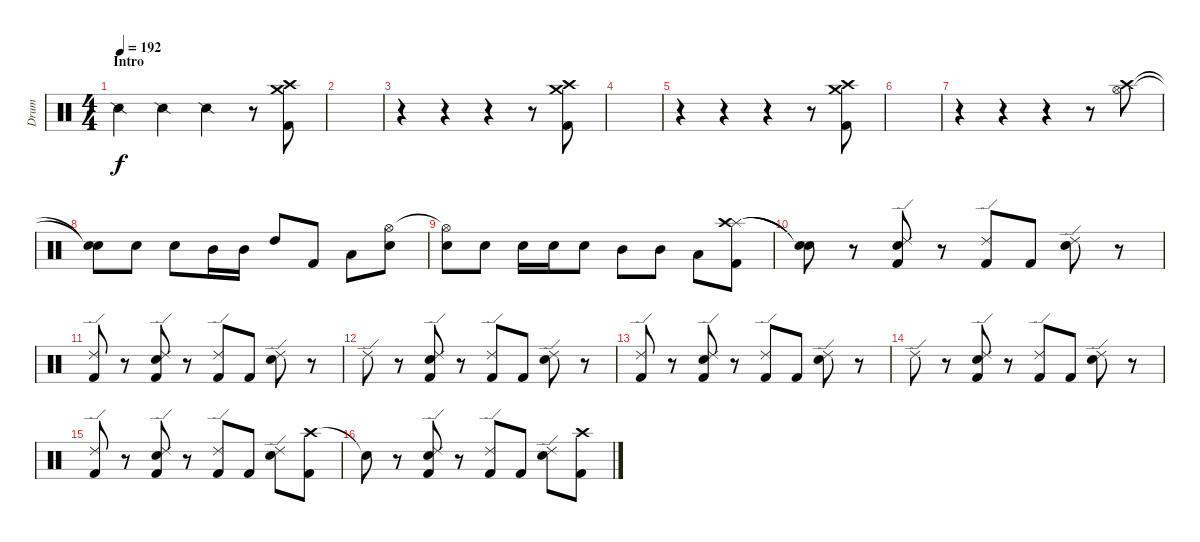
\track ("Drum" "Drum") {instrument percussion}
\staff {score}
\articulation defaults
\ts (4 4)
\section ("" "Intro")
\tempo 192
\clef neutral
\ks c "Snare (side stick) 2".4{dy f} "Snare (side stick) 2".4 "Snare (side stick) 2".4
r.8 ("Crash high (hit)" "Crash medium (hit)" "Kick (hit) 2").8 |
|
r.4 r.4 r.4 r.8 ("Crash high (hit)" "Crash medium (hit)" "Kick (hit) 2").8 |
|
r.4 r.4 r.4 r.8 ("Crash high (hit)" "Crash medium (hit)" "Kick (hit) 2").8 |
|
r.4 r.4 r.4 r.8 ("Crash high (hit)" "Hi-Hat (open)").8 |
("Snare (hit)"{t} "Snare (hit)"{t}).8 "Electric Snare (hit)".8 "Electric Snare (hit)".8 "Mid Tom (hit)".16 "Mid Tom (hit)".16 "High Tom (hit)".8 "Kick (hit) 2".8 "Low Tom (hit)".8 ("Hi-Hat (open)" "Electric Snare (hit)").8 |
("Hi-Hat (open)"{t} "Electric Snare (hit)").8 "Electric Snare (hit)".8 "Electric Snare (hit)".16 "Electric Snare (hit)".16 "Electric Snare (hit)".8 "Mid Tom (hit)".8 "Mid Tom (hit)".8 "Low Tom (hit)".8 ("Splash (hit)" "Crash high (hit)" "Kick (hit) 2").8 |
("Snare (hit)"{t} "Snare (hit)"{t}).8 r.8 ("Ride (edge) 2" "Electric Snare (hit)" "Kick (hit) 2").8 r.8 ("Ride (edge) 2" "Kick (hit) 2").8 "Kick (hit) 2".8 ("Ride (edge) 2" "Electric Snare (hit)").8 r.8 |
("Ride (edge) 2" "Kick (hit) 2").8 r.8 ("Ride (edge) 2" "Electric Snare (hit)" "Kick (hit) 2").8 r.8 ("Ride (edge) 2" "Kick (hit) 2").8 "Kick (hit) 2".8 ("Ride (edge) 2" "Electric Snare (hit)").8 r.8 |
"Ride (edge) 2".8 r.8 ("Ride (edge) 2" "Electric Snare (hit)" "Kick (hit) 2").8 r.8 ("Ride (edge) 2" "Kick (hit) 2").8 "Kick (hit) 2".8 ("Ride (edge) 2" "Electric Snare (hit)").8 r.8 |
("Ride (edge) 2" "Kick (hit) 2").8 r.8 ("Ride (edge) 2" "Electric Snare (hit)" "Kick (hit) 2").8 r.8 ("Ride (edge) 2" "Kick (hit) 2").8 "Kick (hit) 2".8 ("Ride (edge) 2" "Electric Snare (hit)").8 r.8 |
"Ride (edge) 2".8 r.8 ("Ride (edge) 2" "Electric Snare (hit)" "Kick (hit) 2").8 r.8 ("Ride (edge) 2" "Kick (hit) 2").8 "Kick (hit) 2".8 ("Ride (edge) 2" "Electric Snare (hit)").8 r.8 |
("Ride (edge) 2" "Kick (hit) 2").8 r.8 ("Ride (edge) 2" "Electric Snare (hit)" "Kick (hit) 2").8 r.8 ("Ride (edge) 2" "Kick (hit) 2").8 "Kick (hit) 2".8 ("Ride (edge) 2" "Electric Snare (hit)").8 ("Crash high (hit)" "Kick (hit) 2").8 |
"Snare (hit)"{t}.8 r.8 ("Ride (edge) 2" "Electric Snare (hit)" "Kick (hit) 2").8 r.8 ("Ride (edge) 2" "Kick (hit) 2").8 "Kick (hit) 2".8 ("Ride (edge) 2" "Electric Snare (hit)").8 ("Crash high (hit)" "Kick (hit) 2").8
